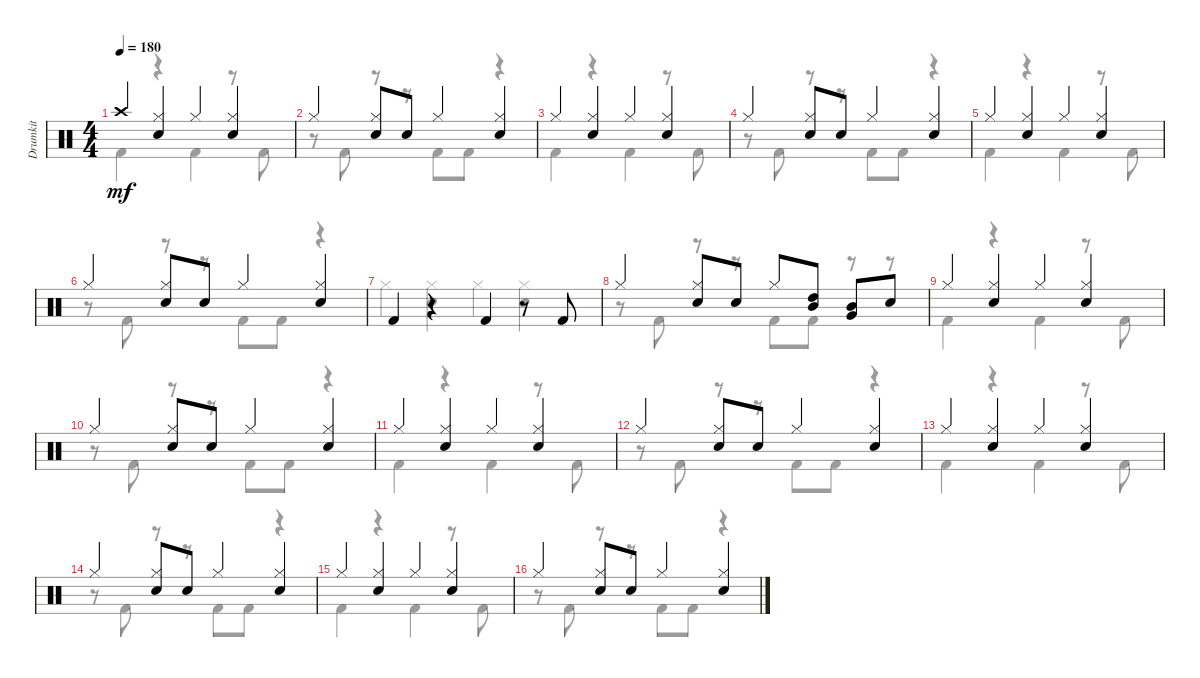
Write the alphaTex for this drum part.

\track ("Drumkit" "Drumkit") {instrument percussion}
\staff {score}
\articulation defaults
\voice
\ts (4 4)
\tempo 180
\clef neutral
\ks c "Crash high (hit)".4{dy mf}
("Hi-Hat (closed)" "Snare (hit) 2").4 "Hi-Hat (closed)".4 ("Hi-Hat (closed)" "Snare (hit) 2").4 |
"Hi-Hat (closed)".4 ("Hi-Hat (closed)" "Snare (hit) 2").8 "Snare (hit) 2".8 "Hi-Hat (closed)".4 ("Hi-Hat (closed)" "Snare (hit) 2").4 |
"Hi-Hat (closed)".4 ("Hi-Hat (closed)" "Snare (hit) 2").4 "Hi-Hat (closed)".4 ("Hi-Hat (closed)" "Snare (hit) 2").4 |
"Hi-Hat (closed)".4 ("Hi-Hat (closed)" "Snare (hit) 2").8 "Snare (hit) 2".8 "Hi-Hat (closed)".4 ("Hi-Hat (closed)" "Snare (hit) 2").4 |
"Hi-Hat (closed)".4 ("Hi-Hat (closed)" "Snare (hit) 2").4 "Hi-Hat (closed)".4 ("Hi-Hat (closed)" "Snare (hit) 2").4 |
"Hi-Hat (closed)".4 ("Hi-Hat (closed)" "Snare (hit) 2").8 "Snare (hit) 2".8 "Hi-Hat (closed)".4 ("Hi-Hat (closed)" "Snare (hit) 2").4 |
"Kick (hit) 2".4 r.4 "Kick (hit) 2".4 r.8 "Kick (hit) 2".8 |
"Hi-Hat (closed)".4 ("Hi-Hat (closed)" "Snare (hit) 2").8 "Snare (hit) 2".8 "Hi-Hat (closed)".8 ("High Tom (hit)" "Mid Tom (hit)").8 ("Very Low Tom (hit)" "Mid Tom (hit)").8 "Snare (hit) 2".8 |
"Hi-Hat (closed)".4 ("Hi-Hat (closed)" "Snare (hit) 2").4 "Hi-Hat (closed)".4 ("Hi-Hat (closed)" "Snare (hit) 2").4 |
"Hi-Hat (closed)".4 ("Hi-Hat (closed)" "Snare (hit) 2").8 "Snare (hit) 2".8 "Hi-Hat (closed)".4 ("Hi-Hat (closed)" "Snare (hit) 2").4 |
"Hi-Hat (closed)".4 ("Hi-Hat (closed)" "Snare (hit) 2").4 "Hi-Hat (closed)".4 ("Hi-Hat (closed)" "Snare (hit) 2").4 |
"Hi-Hat (closed)".4 ("Hi-Hat (closed)" "Snare (hit) 2").8 "Snare (hit) 2".8 "Hi-Hat (closed)".4 ("Hi-Hat (closed)" "Snare (hit) 2").4 |
"Hi-Hat (closed)".4 ("Hi-Hat (closed)" "Snare (hit) 2").4 "Hi-Hat (closed)".4 ("Hi-Hat (closed)" "Snare (hit) 2").4 |
"Hi-Hat (closed)".4 ("Hi-Hat (closed)" "Snare (hit) 2").8 "Snare (hit) 2".8 "Hi-Hat (closed)".4 ("Hi-Hat (closed)" "Snare (hit) 2").4 |
"Hi-Hat (closed)".4 ("Hi-Hat (closed)" "Snare (hit) 2").4 "Hi-Hat (closed)".4 ("Hi-Hat (closed)" "Snare (hit) 2").4 |
"Hi-Hat (closed)".4 ("Hi-Hat (closed)" "Snare (hit) 2").8 "Snare (hit) 2".8 "Hi-Hat (closed)".4 ("Hi-Hat (closed)" "Snare (hit) 2").4
\voice
\clef neutral
\ottava regular
\simile none
\ks c "Kick (hit) 2".4{dy mf}
r.4 "Kick (hit) 2".4 r.8 "Kick (hit) 2".8 |
r.8 "Kick (hit) 2".8 r.8 r.8 "Kick (hit) 2".8 "Kick (hit) 2".8 r.4 |
"Kick (hit) 2".4 r.4 "Kick (hit) 2".4 r.8 "Kick (hit) 2".8 |
r.8 "Kick (hit) 2".8 r.8 r.8 "Kick (hit) 2".8 "Kick (hit) 2".8 r.4 |
"Kick (hit) 2".4 r.4 "Kick (hit) 2".4 r.8 "Kick (hit) 2".8 |
r.8 "Kick (hit) 2".8 r.8 r.8 "Kick (hit) 2".8 "Kick (hit) 2".8 r.4 |
"Hi-Hat (closed)".4 ("Hi-Hat (closed)" "Snare (hit) 2").4 "Hi-Hat (closed)".4 ("Hi-Hat (closed)" "Snare (hit) 2").4 |
r.8 "Kick (hit) 2".8 r.8 r.8 "Kick (hit) 2".8 "Kick (hit) 2".8 r.8 r.8 |
"Kick (hit) 2".4 r.4 "Kick (hit) 2".4 r.8 "Kick (hit) 2".8 |
r.8 "Kick (hit) 2".8 r.8 r.8 "Kick (hit) 2".8 "Kick (hit) 2".8 r.4 |
"Kick (hit) 2".4 r.4 "Kick (hit) 2".4 r.8 "Kick (hit) 2".8 |
r.8 "Kick (hit) 2".8 r.8 r.8 "Kick (hit) 2".8 "Kick (hit) 2".8 r.4 |
"Kick (hit) 2".4 r.4 "Kick (hit) 2".4 r.8 "Kick (hit) 2".8 |
r.8 "Kick (hit) 2".8 r.8 r.8 "Kick (hit) 2".8 "Kick (hit) 2".8 r.4 |
"Kick (hit) 2".4 r.4 "Kick (hit) 2".4 r.8 "Kick (hit) 2".8 |
r.8 "Kick (hit) 2".8 r.8 r.8 "Kick (hit) 2".8 "Kick (hit) 2".8 r.4
